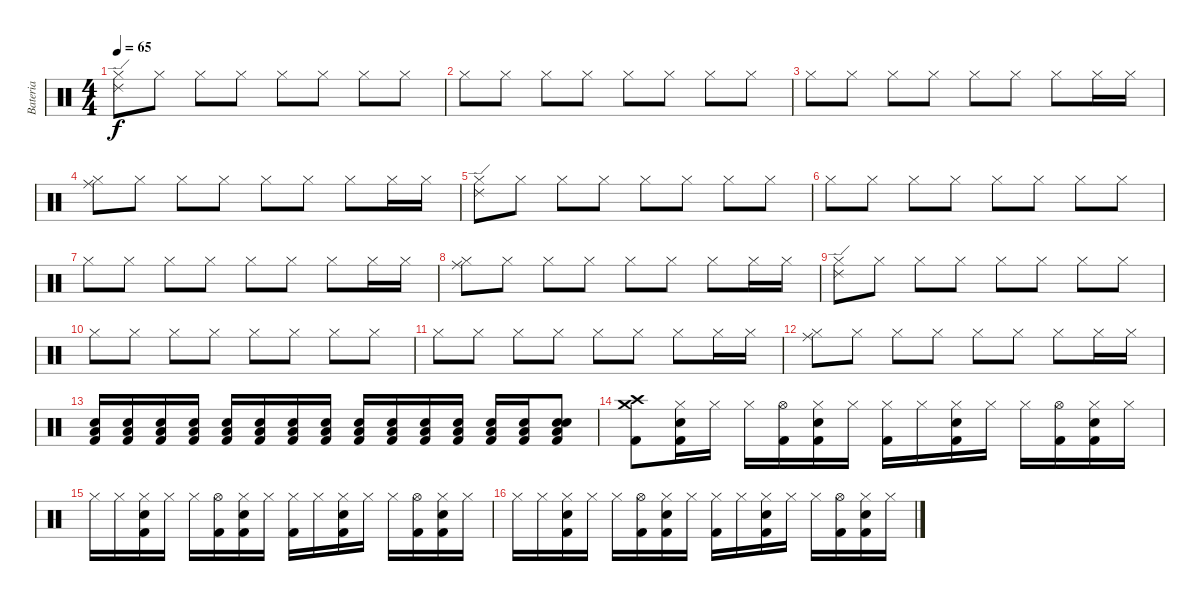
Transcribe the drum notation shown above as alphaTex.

\track ("Bateria" "Bateria") {instrument percussion}
\staff {score}
\articulation defaults
\ts (4 4)
\tempo 65
\clef neutral
\ks c
("Hi-Hat (closed)" "Ride (edge) 2").8{dy f} "Hi-Hat (closed)".8 "Hi-Hat (closed)".8 "Hi-Hat (closed)".8 "Hi-Hat (closed)".8 "Hi-Hat (closed)".8 "Hi-Hat (closed)".8 "Hi-Hat (closed)".8 |
"Hi-Hat (closed)".8 "Hi-Hat (closed)".8 "Hi-Hat (closed)".8 "Hi-Hat (closed)".8 "Hi-Hat (closed)".8 "Hi-Hat (closed)".8 "Hi-Hat (closed)".8 "Hi-Hat (closed)".8 |
"Hi-Hat (closed)".8 "Hi-Hat (closed)".8 "Hi-Hat (closed)".8 "Hi-Hat (closed)".8 "Hi-Hat (closed)".8 "Hi-Hat (closed)".8 "Hi-Hat (closed)".8 "Hi-Hat (closed)".16 "Hi-Hat (closed)".16 |
("Hi-Hat (closed)" "Ride (middle)").8 "Hi-Hat (closed)".8 "Hi-Hat (closed)".8 "Hi-Hat (closed)".8 "Hi-Hat (closed)".8 "Hi-Hat (closed)".8 "Hi-Hat (closed)".8 "Hi-Hat (closed)".16 "Hi-Hat (closed)".16 |
("Hi-Hat (closed)" "Ride (edge) 2").8 "Hi-Hat (closed)".8 "Hi-Hat (closed)".8 "Hi-Hat (closed)".8 "Hi-Hat (closed)".8 "Hi-Hat (closed)".8 "Hi-Hat (closed)".8 "Hi-Hat (closed)".8 |
"Hi-Hat (closed)".8 "Hi-Hat (closed)".8 "Hi-Hat (closed)".8 "Hi-Hat (closed)".8 "Hi-Hat (closed)".8 "Hi-Hat (closed)".8 "Hi-Hat (closed)".8 "Hi-Hat (closed)".8 |
"Hi-Hat (closed)".8 "Hi-Hat (closed)".8 "Hi-Hat (closed)".8 "Hi-Hat (closed)".8 "Hi-Hat (closed)".8 "Hi-Hat (closed)".8 "Hi-Hat (closed)".8 "Hi-Hat (closed)".16 "Hi-Hat (closed)".16 |
("Hi-Hat (closed)" "Ride (middle)").8 "Hi-Hat (closed)".8 "Hi-Hat (closed)".8 "Hi-Hat (closed)".8 "Hi-Hat (closed)".8 "Hi-Hat (closed)".8 "Hi-Hat (closed)".8 "Hi-Hat (closed)".16 "Hi-Hat (closed)".16 |
("Hi-Hat (closed)" "Ride (edge) 2").8 "Hi-Hat (closed)".8 "Hi-Hat (closed)".8 "Hi-Hat (closed)".8 "Hi-Hat (closed)".8 "Hi-Hat (closed)".8 "Hi-Hat (closed)".8 "Hi-Hat (closed)".8 |
"Hi-Hat (closed)".8 "Hi-Hat (closed)".8 "Hi-Hat (closed)".8 "Hi-Hat (closed)".8 "Hi-Hat (closed)".8 "Hi-Hat (closed)".8 "Hi-Hat (closed)".8 "Hi-Hat (closed)".8 |
"Hi-Hat (closed)".8 "Hi-Hat (closed)".8 "Hi-Hat (closed)".8 "Hi-Hat (closed)".8 "Hi-Hat (closed)".8 "Hi-Hat (closed)".8 "Hi-Hat (closed)".8 "Hi-Hat (closed)".16 "Hi-Hat (closed)".16 |
("Hi-Hat (closed)" "Ride (middle)").8 "Hi-Hat (closed)".8 "Hi-Hat (closed)".8 "Hi-Hat (closed)".8 "Hi-Hat (closed)".8 "Hi-Hat (closed)".8 "Hi-Hat (closed)".8 "Hi-Hat (closed)".16 "Hi-Hat (closed)".16 |
("Kick (hit) 2" "Electric Snare (hit)" "Low Floor Tom (hit)").16{volume 1} ("Kick (hit) 2" "Electric Snare (hit)" "Low Floor Tom (hit)").16{volume 2} ("Kick (hit) 2" "Electric Snare (hit)" "Low Floor Tom (hit)").16{volume 3} ("Kick (hit) 2" "Electric Snare (hit)" "Low Floor Tom (hit)").16{volume 4} ("Kick (hit) 2" "Electric Snare (hit)" "Low Floor Tom (hit)").16{volume 5} ("Kick (hit) 2" "Electric Snare (hit)" "Low Floor Tom (hit)").16{volume 6} ("Kick (hit) 2" "Electric Snare (hit)" "Low Floor Tom (hit)").16{volume 7} ("Kick (hit) 2" "Electric Snare (hit)" "Low Floor Tom (hit)").16{volume 9} ("Kick (hit) 2" "Electric Snare (hit)" "Low Floor Tom (hit)").16{volume 9} ("Kick (hit) 2" "Electric Snare (hit)" "Low Floor Tom (hit)").16{volume 10} ("Kick (hit) 2" "Electric Snare (hit)" "Low Floor Tom (hit)").16{volume 11} ("Kick (hit) 2" "Electric Snare (hit)" "Low Floor Tom (hit)").16{volume 12} ("Kick (hit) 2" "Electric Snare (hit)" "Low Floor Tom (hit)").16{volume 12} ("Kick (hit) 2" "Electric Snare (hit)" "Low Floor Tom (hit)").16{volume 13} ("Kick (hit) 2" "Electric Snare (hit)" "Snare (hit) 2" "Low Floor Tom (hit)").8{volume 16} |
("Crash medium (hit)" "Kick (hit) 2" "Crash high (hit)").8{volume 16} ("Hi-Hat (closed)" "Kick (hit) 2" "Electric Snare (hit)").16 "Hi-Hat (closed)".16 "Hi-Hat (closed)".16 ("Hi-Hat (open)" "Kick (hit) 2").16 ("Hi-Hat (closed)" "Kick (hit) 2" "Electric Snare (hit)").16 "Hi-Hat (closed)".16 ("Hi-Hat (closed)" "Kick (hit) 2").16 "Hi-Hat (closed)".16 ("Hi-Hat (closed)" "Kick (hit) 2" "Electric Snare (hit)").16 "Hi-Hat (closed)".16 "Hi-Hat (closed)".16 ("Hi-Hat (open)" "Kick (hit) 2").16 ("Hi-Hat (closed)" "Kick (hit) 2" "Electric Snare (hit)").16 "Hi-Hat (closed)".16 |
"Hi-Hat (closed)".16 "Hi-Hat (closed)".16 ("Hi-Hat (closed)" "Kick (hit) 2" "Electric Snare (hit)").16 "Hi-Hat (closed)".16 "Hi-Hat (closed)".16 ("Hi-Hat (open)" "Kick (hit) 2").16 ("Hi-Hat (closed)" "Kick (hit) 2" "Electric Snare (hit)").16 "Hi-Hat (closed)".16 ("Hi-Hat (closed)" "Kick (hit) 2").16 "Hi-Hat (closed)".16 ("Hi-Hat (closed)" "Kick (hit) 2" "Electric Snare (hit)").16 "Hi-Hat (closed)".16 "Hi-Hat (closed)".16 ("Hi-Hat (open)" "Kick (hit) 2").16 ("Hi-Hat (closed)" "Kick (hit) 2" "Electric Snare (hit)").16 "Hi-Hat (closed)".16 |
"Hi-Hat (closed)".16 "Hi-Hat (closed)".16 ("Hi-Hat (closed)" "Kick (hit) 2" "Electric Snare (hit)").16 "Hi-Hat (closed)".16 "Hi-Hat (closed)".16 ("Hi-Hat (open)" "Kick (hit) 2").16 ("Hi-Hat (closed)" "Kick (hit) 2" "Electric Snare (hit)").16 "Hi-Hat (closed)".16 ("Hi-Hat (closed)" "Kick (hit) 2").16 "Hi-Hat (closed)".16 ("Hi-Hat (closed)" "Kick (hit) 2" "Electric Snare (hit)").16 "Hi-Hat (closed)".16 "Hi-Hat (closed)".16 ("Hi-Hat (open)" "Kick (hit) 2").16 ("Hi-Hat (closed)" "Kick (hit) 2" "Electric Snare (hit)").16 "Hi-Hat (closed)".16
